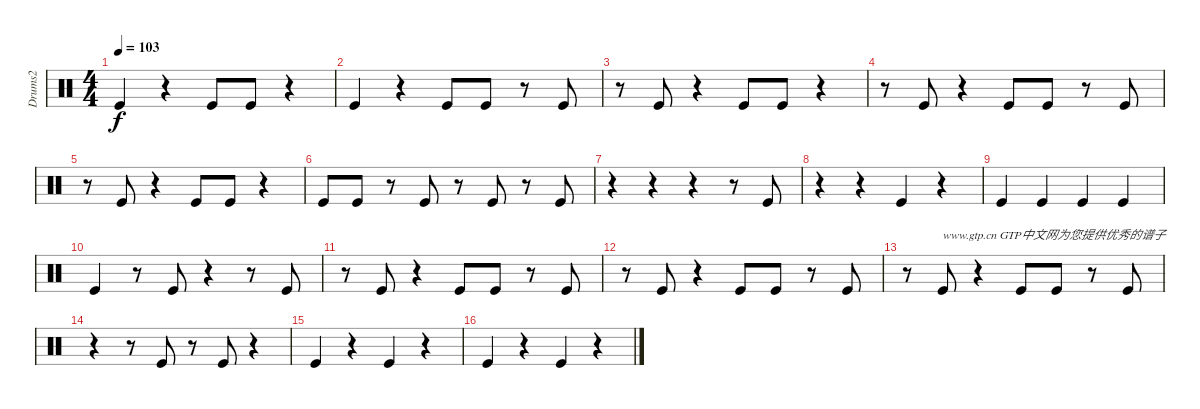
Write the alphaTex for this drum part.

\track ("Drums2" "Drums2") {instrument percussion}
\staff {score}
\articulation defaults
\ts (4 4)
\tempo 103
\clef neutral
\ks c "Kick (hit)".4{dy f}
r.4 "Kick (hit)".8 "Kick (hit)".8 r.4 |
"Kick (hit)".4 r.4 "Kick (hit)".8 "Kick (hit)".8 r.8 "Kick (hit)".8 |
r.8 "Kick (hit)".8 r.4 "Kick (hit)".8 "Kick (hit)".8 r.4 |
r.8 "Kick (hit)".8 r.4 "Kick (hit)".8 "Kick (hit)".8 r.8 "Kick (hit)".8 |
r.8 "Kick (hit)".8 r.4 "Kick (hit)".8 "Kick (hit)".8 r.4 |
"Kick (hit)".8 "Kick (hit)".8 r.8 "Kick (hit)".8 r.8 "Kick (hit)".8 r.8 "Kick (hit)".8 |
r.4 r.4 r.4 r.8 "Kick (hit)".8 |
r.4 r.4 "Kick (hit)".4 r.4 |
"Kick (hit)".4 "Kick (hit)".4 "Kick (hit)".4 "Kick (hit)".4 |
"Kick (hit)".4 r.8 "Kick (hit)".8 r.4 r.8 "Kick (hit)".8 |
r.8 "Kick (hit)".8 r.4 "Kick (hit)".8 "Kick (hit)".8 r.8 "Kick (hit)".8 |
r.8 "Kick (hit)".8 r.4 "Kick (hit)".8 "Kick (hit)".8 r.8 "Kick (hit)".8 |
r.8 "Kick (hit)".8{txt "www.gtp.cn GTP中文网为您提供优秀的谱子"} r.4 "Kick (hit)".8 "Kick (hit)".8 r.8 "Kick (hit)".8 |
r.4 r.8 "Kick (hit)".8 r.8 "Kick (hit)".8 r.4 |
"Kick (hit)".4 r.4 "Kick (hit)".4 r.4 |
"Kick (hit)".4 r.4 "Kick (hit)".4 r.4
